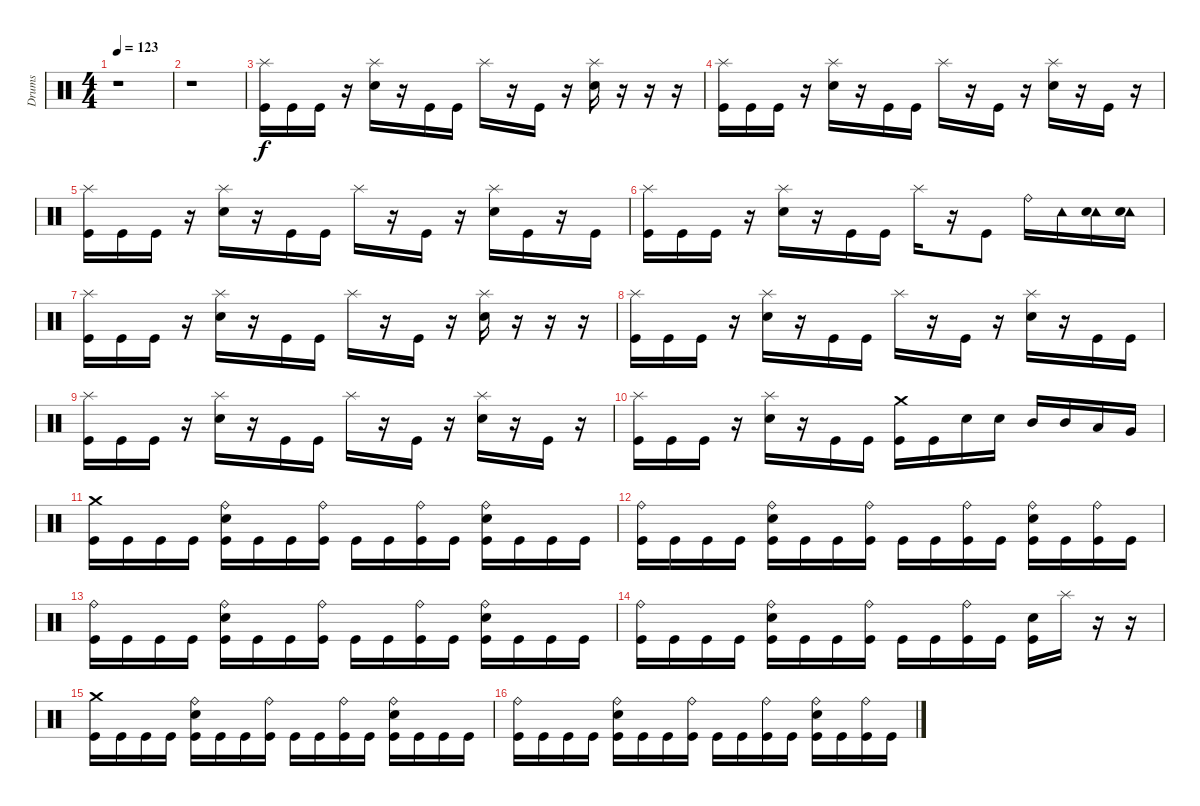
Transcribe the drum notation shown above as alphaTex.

\track ("Drums" "Drums") {instrument percussion}
\staff {score}
\articulation defaults
\ts (4 4)
\tempo 123
\clef neutral
\ks c
r.1{dy f} |
r.1 |
("Splash (hit)" "Kick (hit)").16 "Kick (hit)".16 "Kick (hit)".16 r.16 ("Splash (hit)" "Electric Snare (hit)").16 r.16 "Kick (hit)".16 "Kick (hit)".16 "Splash (hit)".16 r.16 "Kick (hit)".16 r.16 ("Splash (hit)" "Electric Snare (hit)").16 r.16 r.16 r.16 |
("Splash (hit)" "Kick (hit)").16 "Kick (hit)".16 "Kick (hit)".16 r.16 ("Splash (hit)" "Electric Snare (hit)").16 r.16 "Kick (hit)".16 "Kick (hit)".16 "Splash (hit)".16 r.16 "Kick (hit)".16 r.16 ("Splash (hit)" "Electric Snare (hit)").16 r.16 "Kick (hit)".16 r.16 |
("Splash (hit)" "Kick (hit)").16 "Kick (hit)".16 "Kick (hit)".16 r.16 ("Splash (hit)" "Electric Snare (hit)").16 r.16 "Kick (hit)".16 "Kick (hit)".16 "Splash (hit)".16 r.16 "Kick (hit)".16 r.16 ("Splash (hit)" "Electric Snare (hit)").16 "Kick (hit)".16 r.16 "Kick (hit)".16 |
("Splash (hit)" "Kick (hit)").16 "Kick (hit)".16 "Kick (hit)".16 r.16 ("Splash (hit)" "Electric Snare (hit)").16 r.16 "Kick (hit)".16 "Kick (hit)".16 "Splash (hit)".16 r.16 "Kick (hit)".8 "Ride (bell)".16 "Tambourine (hit)".16 ("Tambourine (hit)" "Electric Snare (hit)").16 ("Tambourine (hit)" "Electric Snare (hit)").16 |
("Splash (hit)" "Kick (hit)").16 "Kick (hit)".16 "Kick (hit)".16 r.16 ("Splash (hit)" "Electric Snare (hit)").16 r.16 "Kick (hit)".16 "Kick (hit)".16 "Splash (hit)".16 r.16 "Kick (hit)".16 r.16 ("Splash (hit)" "Electric Snare (hit)").16 r.16 r.16 r.16 |
("Splash (hit)" "Kick (hit)").16 "Kick (hit)".16 "Kick (hit)".16 r.16 ("Splash (hit)" "Electric Snare (hit)").16 r.16 "Kick (hit)".16 "Kick (hit)".16 "Splash (hit)".16 r.16 "Kick (hit)".16 r.16 ("Splash (hit)" "Electric Snare (hit)").16 r.16 "Kick (hit)".16 "Kick (hit)".16 |
("Splash (hit)" "Kick (hit)").16 "Kick (hit)".16 "Kick (hit)".16 r.16 ("Splash (hit)" "Electric Snare (hit)").16 r.16 "Kick (hit)".16 "Kick (hit)".16 "Splash (hit)".16 r.16 "Kick (hit)".16 r.16 ("Splash (hit)" "Electric Snare (hit)").16 r.16 "Kick (hit)".16 r.16 |
("Splash (hit)" "Kick (hit)").16 "Kick (hit)".16 "Kick (hit)".16 r.16 ("Splash (hit)" "Electric Snare (hit)").16 r.16 "Kick (hit)".16 "Kick (hit)".16 ("Crash medium (hit)" "Kick (hit)").16 "Kick (hit)".16 "Electric Snare (hit)".16 "Electric Snare (hit)".16 "Mid Tom (hit)".16 "Mid Tom (hit)".16 "Low Tom (hit)".16 "Very Low Tom (hit)".16 |
("Crash medium (hit)" "Kick (hit)").16 "Kick (hit)".16 "Kick (hit)".16 "Kick (hit)".16 ("Ride (bell)" "Electric Snare (hit)" "Kick (hit)").16 "Kick (hit)".16 "Kick (hit)".16 ("Ride (bell)" "Kick (hit)").16 "Kick (hit)".16 "Kick (hit)".16 ("Ride (bell)" "Kick (hit)").16 "Kick (hit)".16 ("Ride (bell)" "Electric Snare (hit)" "Kick (hit)").16 "Kick (hit)".16 "Kick (hit)".16 "Kick (hit)".16 |
("Ride (bell)" "Kick (hit)").16 "Kick (hit)".16 "Kick (hit)".16 "Kick (hit)".16 ("Ride (bell)" "Electric Snare (hit)" "Kick (hit)").16 "Kick (hit)".16 "Kick (hit)".16 ("Ride (bell)" "Kick (hit)").16 "Kick (hit)".16 "Kick (hit)".16 ("Ride (bell)" "Kick (hit)").16 "Kick (hit)".16 ("Ride (bell)" "Electric Snare (hit)" "Kick (hit)").16 "Kick (hit)".16 ("Ride (bell)" "Kick (hit)").16 "Kick (hit)".16 |
("Ride (bell)" "Kick (hit)").16 "Kick (hit)".16 "Kick (hit)".16 "Kick (hit)".16 ("Ride (bell)" "Electric Snare (hit)" "Kick (hit)").16 "Kick (hit)".16 "Kick (hit)".16 ("Ride (bell)" "Kick (hit)").16 "Kick (hit)".16 "Kick (hit)".16 ("Ride (bell)" "Kick (hit)").16 "Kick (hit)".16 ("Ride (bell)" "Electric Snare (hit)" "Kick (hit)").16 "Kick (hit)".16 "Kick (hit)".16 "Kick (hit)".16 |
("Ride (bell)" "Kick (hit)").16 "Kick (hit)".16 "Kick (hit)".16 "Kick (hit)".16 ("Ride (bell)" "Electric Snare (hit)" "Kick (hit)").16 "Kick (hit)".16 "Kick (hit)".16 ("Ride (bell)" "Kick (hit)").16 "Kick (hit)".16 "Kick (hit)".16 ("Ride (bell)" "Kick (hit)").16 "Kick (hit)".16 ("Electric Snare (hit)" "Kick (hit)").16 "Splash (hit)".16 r.16 r.16 |
("Crash medium (hit)" "Kick (hit)").16 "Kick (hit)".16 "Kick (hit)".16 "Kick (hit)".16 ("Ride (bell)" "Electric Snare (hit)" "Kick (hit)").16 "Kick (hit)".16 "Kick (hit)".16 ("Ride (bell)" "Kick (hit)").16 "Kick (hit)".16 "Kick (hit)".16 ("Ride (bell)" "Kick (hit)").16 "Kick (hit)".16 ("Ride (bell)" "Electric Snare (hit)" "Kick (hit)").16 "Kick (hit)".16 "Kick (hit)".16 "Kick (hit)".16 |
("Ride (bell)" "Kick (hit)").16 "Kick (hit)".16 "Kick (hit)".16 "Kick (hit)".16 ("Ride (bell)" "Electric Snare (hit)" "Kick (hit)").16 "Kick (hit)".16 "Kick (hit)".16 ("Ride (bell)" "Kick (hit)").16 "Kick (hit)".16 "Kick (hit)".16 ("Ride (bell)" "Kick (hit)").16 "Kick (hit)".16 ("Ride (bell)" "Electric Snare (hit)" "Kick (hit)").16 "Kick (hit)".16 ("Ride (bell)" "Kick (hit)").16 "Kick (hit)".16
